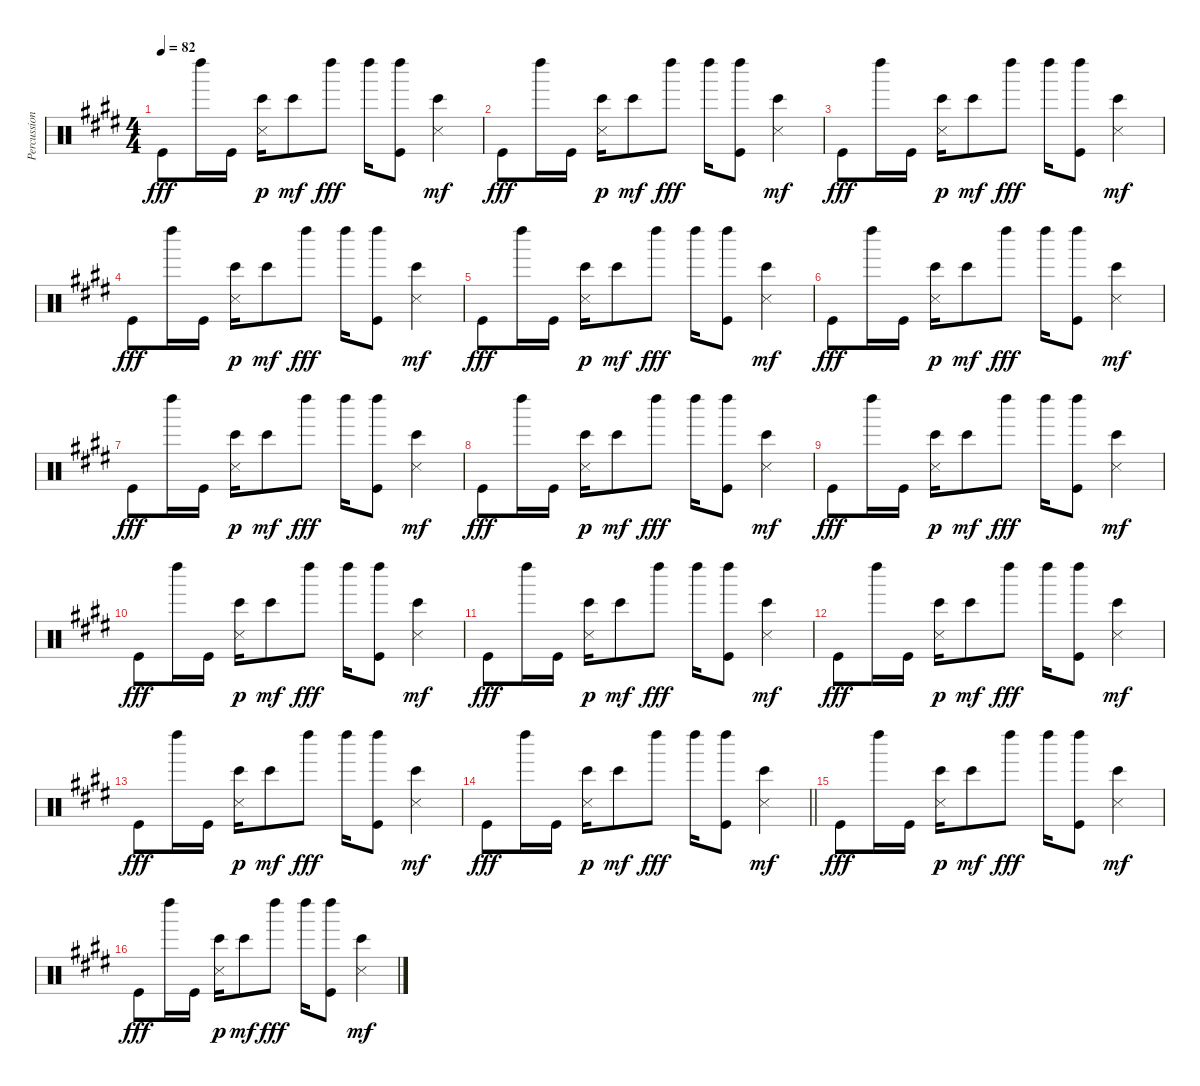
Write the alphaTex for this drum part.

\track ("Percussions" "Percussion") {instrument percussion}
\staff {score}
\articulation defaults
\ts (4 4)
\tempo 82
\clef neutral
\ks e "Kick (hit)".8{dy fff} "Left Maraca (hit)".16 "Kick (hit)".16
("Bongo High (hit)" "Metronome (hit)").16{dy p} "Bongo High (hit)".8{dy mf} "Left Maraca (hit)".8{dy fff} "Left Maraca (hit)".16 ("Left Maraca (hit)" "Kick (hit)").8 ("Bongo High (hit)" "Metronome (hit)").4{dy mf} |
"Kick (hit)".8{dy fff} "Left Maraca (hit)".16 "Kick (hit)".16 ("Bongo High (hit)" "Metronome (hit)").16{dy p} "Bongo High (hit)".8{dy mf} "Left Maraca (hit)".8{dy fff} "Left Maraca (hit)".16 ("Left Maraca (hit)" "Kick (hit)").8 ("Bongo High (hit)" "Metronome (hit)").4{dy mf} |
"Kick (hit)".8{dy fff} "Left Maraca (hit)".16 "Kick (hit)".16 ("Bongo High (hit)" "Metronome (hit)").16{dy p} "Bongo High (hit)".8{dy mf} "Left Maraca (hit)".8{dy fff} "Left Maraca (hit)".16 ("Left Maraca (hit)" "Kick (hit)").8 ("Bongo High (hit)" "Metronome (hit)").4{dy mf} |
"Kick (hit)".8{dy fff} "Left Maraca (hit)".16 "Kick (hit)".16 ("Bongo High (hit)" "Metronome (hit)").16{dy p} "Bongo High (hit)".8{dy mf} "Left Maraca (hit)".8{dy fff} "Left Maraca (hit)".16 ("Left Maraca (hit)" "Kick (hit)").8 ("Bongo High (hit)" "Metronome (hit)").4{dy mf} |
"Kick (hit)".8{dy fff} "Left Maraca (hit)".16 "Kick (hit)".16 ("Bongo High (hit)" "Metronome (hit)").16{dy p} "Bongo High (hit)".8{dy mf} "Left Maraca (hit)".8{dy fff} "Left Maraca (hit)".16 ("Left Maraca (hit)" "Kick (hit)").8 ("Bongo High (hit)" "Metronome (hit)").4{dy mf} |
"Kick (hit)".8{dy fff} "Left Maraca (hit)".16 "Kick (hit)".16 ("Bongo High (hit)" "Metronome (hit)").16{dy p} "Bongo High (hit)".8{dy mf} "Left Maraca (hit)".8{dy fff} "Left Maraca (hit)".16 ("Left Maraca (hit)" "Kick (hit)").8 ("Bongo High (hit)" "Metronome (hit)").4{dy mf} |
"Kick (hit)".8{dy fff} "Left Maraca (hit)".16 "Kick (hit)".16 ("Bongo High (hit)" "Metronome (hit)").16{dy p} "Bongo High (hit)".8{dy mf} "Left Maraca (hit)".8{dy fff} "Left Maraca (hit)".16 ("Left Maraca (hit)" "Kick (hit)").8 ("Bongo High (hit)" "Metronome (hit)").4{dy mf} |
"Kick (hit)".8{dy fff} "Left Maraca (hit)".16 "Kick (hit)".16 ("Bongo High (hit)" "Metronome (hit)").16{dy p} "Bongo High (hit)".8{dy mf} "Left Maraca (hit)".8{dy fff} "Left Maraca (hit)".16 ("Left Maraca (hit)" "Kick (hit)").8 ("Bongo High (hit)" "Metronome (hit)").4{dy mf} |
"Kick (hit)".8{dy fff} "Left Maraca (hit)".16 "Kick (hit)".16 ("Bongo High (hit)" "Metronome (hit)").16{dy p} "Bongo High (hit)".8{dy mf} "Left Maraca (hit)".8{dy fff} "Left Maraca (hit)".16 ("Left Maraca (hit)" "Kick (hit)").8 ("Bongo High (hit)" "Metronome (hit)").4{dy mf} |
"Kick (hit)".8{dy fff} "Left Maraca (hit)".16 "Kick (hit)".16 ("Bongo High (hit)" "Metronome (hit)").16{dy p} "Bongo High (hit)".8{dy mf} "Left Maraca (hit)".8{dy fff} "Left Maraca (hit)".16 ("Left Maraca (hit)" "Kick (hit)").8 ("Bongo High (hit)" "Metronome (hit)").4{dy mf} |
"Kick (hit)".8{dy fff} "Left Maraca (hit)".16 "Kick (hit)".16 ("Bongo High (hit)" "Metronome (hit)").16{dy p} "Bongo High (hit)".8{dy mf} "Left Maraca (hit)".8{dy fff} "Left Maraca (hit)".16 ("Left Maraca (hit)" "Kick (hit)").8 ("Bongo High (hit)" "Metronome (hit)").4{dy mf} |
"Kick (hit)".8{dy fff} "Left Maraca (hit)".16 "Kick (hit)".16 ("Bongo High (hit)" "Metronome (hit)").16{dy p} "Bongo High (hit)".8{dy mf} "Left Maraca (hit)".8{dy fff} "Left Maraca (hit)".16 ("Left Maraca (hit)" "Kick (hit)").8 ("Bongo High (hit)" "Metronome (hit)").4{dy mf} |
"Kick (hit)".8{dy fff} "Left Maraca (hit)".16 "Kick (hit)".16 ("Bongo High (hit)" "Metronome (hit)").16{dy p} "Bongo High (hit)".8{dy mf} "Left Maraca (hit)".8{dy fff} "Left Maraca (hit)".16 ("Left Maraca (hit)" "Kick (hit)").8 ("Bongo High (hit)" "Metronome (hit)").4{dy mf} |
\barLineRight lightlight "Kick (hit)".8{dy fff} "Left Maraca (hit)".16 "Kick (hit)".16
("Bongo High (hit)" "Metronome (hit)").16{dy p} "Bongo High (hit)".8{dy mf} "Left Maraca (hit)".8{dy fff} "Left Maraca (hit)".16 ("Left Maraca (hit)" "Kick (hit)").8 ("Bongo High (hit)" "Metronome (hit)").4{dy mf} |
"Kick (hit)".8{dy fff} "Left Maraca (hit)".16 "Kick (hit)".16 ("Bongo High (hit)" "Metronome (hit)").16{dy p} "Bongo High (hit)".8{dy mf} "Left Maraca (hit)".8{dy fff} "Left Maraca (hit)".16 ("Left Maraca (hit)" "Kick (hit)").8 ("Bongo High (hit)" "Metronome (hit)").4{dy mf} |
"Kick (hit)".8{dy fff} "Left Maraca (hit)".16 "Kick (hit)".16 ("Bongo High (hit)" "Metronome (hit)").16{dy p} "Bongo High (hit)".8{dy mf} "Left Maraca (hit)".8{dy fff} "Left Maraca (hit)".16 ("Left Maraca (hit)" "Kick (hit)").8 ("Bongo High (hit)" "Metronome (hit)").4{dy mf}
